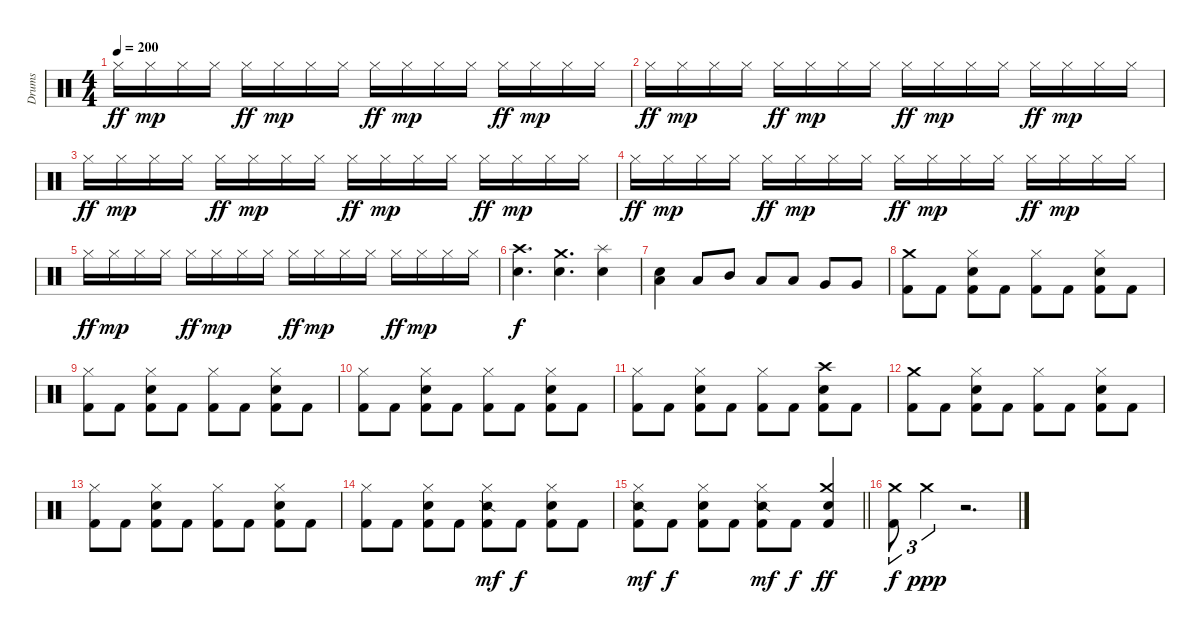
\track ("Drums" "Drums") {instrument percussion}
\staff {score}
\articulation defaults
\ts (4 4)
\tempo 200
\clef neutral
\ks c "Hi-Hat (closed)".16{dy ff} "Hi-Hat (closed)".16{dy mp} "Hi-Hat (closed)".16 "Hi-Hat (closed)".16 "Hi-Hat (closed)".16{dy ff} "Hi-Hat (closed)".16{dy mp} "Hi-Hat (closed)".16 "Hi-Hat (closed)".16 "Hi-Hat (closed)".16{dy ff} "Hi-Hat (closed)".16{dy mp} "Hi-Hat (closed)".16 "Hi-Hat (closed)".16 "Hi-Hat (closed)".16{dy ff} "Hi-Hat (closed)".16{dy mp} "Hi-Hat (closed)".16 "Hi-Hat (closed)".16
|
"Hi-Hat (closed)".16{dy ff} "Hi-Hat (closed)".16{dy mp} "Hi-Hat (closed)".16 "Hi-Hat (closed)".16 "Hi-Hat (closed)".16{dy ff} "Hi-Hat (closed)".16{dy mp} "Hi-Hat (closed)".16 "Hi-Hat (closed)".16 "Hi-Hat (closed)".16{dy ff} "Hi-Hat (closed)".16{dy mp} "Hi-Hat (closed)".16 "Hi-Hat (closed)".16 "Hi-Hat (closed)".16{dy ff} "Hi-Hat (closed)".16{dy mp} "Hi-Hat (closed)".16 "Hi-Hat (closed)".16 |
"Hi-Hat (closed)".16{dy ff} "Hi-Hat (closed)".16{dy mp} "Hi-Hat (closed)".16 "Hi-Hat (closed)".16 "Hi-Hat (closed)".16{dy ff} "Hi-Hat (closed)".16{dy mp} "Hi-Hat (closed)".16 "Hi-Hat (closed)".16 "Hi-Hat (closed)".16{dy ff} "Hi-Hat (closed)".16{dy mp} "Hi-Hat (closed)".16 "Hi-Hat (closed)".16 "Hi-Hat (closed)".16{dy ff} "Hi-Hat (closed)".16{dy mp} "Hi-Hat (closed)".16 "Hi-Hat (closed)".16 |
"Hi-Hat (closed)".16{dy ff} "Hi-Hat (closed)".16{dy mp} "Hi-Hat (closed)".16 "Hi-Hat (closed)".16 "Hi-Hat (closed)".16{dy ff} "Hi-Hat (closed)".16{dy mp} "Hi-Hat (closed)".16 "Hi-Hat (closed)".16 "Hi-Hat (closed)".16{dy ff} "Hi-Hat (closed)".16{dy mp} "Hi-Hat (closed)".16 "Hi-Hat (closed)".16 "Hi-Hat (closed)".16{dy ff} "Hi-Hat (closed)".16{dy mp} "Hi-Hat (closed)".16 "Hi-Hat (closed)".16 |
"Hi-Hat (closed)".16{dy ff} "Hi-Hat (closed)".16{dy mp} "Hi-Hat (closed)".16 "Hi-Hat (closed)".16 "Hi-Hat (closed)".16{dy ff} "Hi-Hat (closed)".16{dy mp} "Hi-Hat (closed)".16 "Hi-Hat (closed)".16 "Hi-Hat (closed)".16{dy ff} "Hi-Hat (closed)".16{dy mp} "Hi-Hat (closed)".16 "Hi-Hat (closed)".16 "Hi-Hat (closed)".16{dy ff} "Hi-Hat (closed)".16{dy mp} "Hi-Hat (closed)".16 "Hi-Hat (closed)".16 |
("Crash high (hit)" "Snare (hit) 2").4{d dy f} ("Crash medium (hit)" "Snare (hit) 2").4{d} ("Splash (hit)" "Snare (hit) 2").4 |
("Low Tom (hit)" "Snare (hit) 2").4 "Low Tom (hit)".8 "Mid Tom (hit)".8 "Low Tom (hit)".8 "Low Tom (hit)".8 "Very Low Tom (hit)".8 "Very Low Tom (hit)".8 |
("Crash medium (hit)" "Kick (hit) 2").8 "Kick (hit) 2".8 ("Hi-Hat (closed)" "Snare (hit) 2" "Kick (hit) 2").8 "Kick (hit) 2".8 ("Hi-Hat (closed)" "Kick (hit) 2").8 "Kick (hit) 2".8 ("Hi-Hat (closed)" "Snare (hit) 2" "Kick (hit) 2").8 "Kick (hit) 2".8 |
("Hi-Hat (closed)" "Kick (hit) 2").8 "Kick (hit) 2".8 ("Hi-Hat (closed)" "Snare (hit) 2" "Kick (hit) 2").8 "Kick (hit) 2".8 ("Hi-Hat (closed)" "Kick (hit) 2").8 "Kick (hit) 2".8 ("Hi-Hat (closed)" "Snare (hit) 2" "Kick (hit) 2").8 "Kick (hit) 2".8 |
("Hi-Hat (closed)" "Kick (hit) 2").8 "Kick (hit) 2".8 ("Hi-Hat (closed)" "Snare (hit) 2" "Kick (hit) 2").8 "Kick (hit) 2".8 ("Hi-Hat (closed)" "Kick (hit) 2").8 "Kick (hit) 2".8 ("Hi-Hat (closed)" "Snare (hit) 2" "Kick (hit) 2").8 "Kick (hit) 2".8 |
("Hi-Hat (closed)" "Kick (hit) 2").8 "Kick (hit) 2".8 ("Hi-Hat (closed)" "Snare (hit) 2" "Kick (hit) 2").8 "Kick (hit) 2".8 ("Hi-Hat (closed)" "Kick (hit) 2").8 "Kick (hit) 2".8 ("Crash high (hit)" "Snare (hit) 2" "Kick (hit) 2").8 "Kick (hit) 2".8 |
("Crash medium (hit)" "Kick (hit) 2").8 "Kick (hit) 2".8 ("Hi-Hat (closed)" "Snare (hit) 2" "Kick (hit) 2").8 "Kick (hit) 2".8 ("Hi-Hat (closed)" "Kick (hit) 2").8 "Kick (hit) 2".8 ("Hi-Hat (closed)" "Snare (hit) 2" "Kick (hit) 2").8 "Kick (hit) 2".8 |
("Hi-Hat (closed)" "Kick (hit) 2").8 "Kick (hit) 2".8 ("Hi-Hat (closed)" "Snare (hit) 2" "Kick (hit) 2").8 "Kick (hit) 2".8 ("Hi-Hat (closed)" "Kick (hit) 2").8 "Kick (hit) 2".8 ("Hi-Hat (closed)" "Snare (hit) 2" "Kick (hit) 2").8 "Kick (hit) 2".8 |
("Hi-Hat (closed)" "Kick (hit) 2").8 "Kick (hit) 2".8 ("Hi-Hat (closed)" "Snare (hit) 2" "Kick (hit) 2").8 "Kick (hit) 2".8 ("Snare (side stick) 2" "Hi-Hat (closed)" "Kick (hit) 2").8{dy mf} "Kick (hit) 2".8{dy f} ("Hi-Hat (closed)" "Snare (hit) 2" "Kick (hit) 2").8 "Kick (hit) 2".8 |
\barLineRight lightlight
("Snare (side stick) 2" "Hi-Hat (closed)" "Kick (hit) 2").8{dy mf} "Kick (hit) 2".8{dy f} ("Hi-Hat (closed)" "Snare (hit) 2" "Kick (hit) 2").8 "Kick (hit) 2".8 ("Snare (side stick) 2" "Hi-Hat (closed)" "Kick (hit) 2").8{dy mf} "Kick (hit) 2".8{dy f} ("Crash medium (hit)" "Snare (hit) 2" "Kick (hit) 2").4{dy ff} |
("Crash medium (hit)" "Kick (hit) 2").8{tu (3 2) dy f} "Crash medium (hit)".4{tu (3 2) dy ppp} r.2{d}
